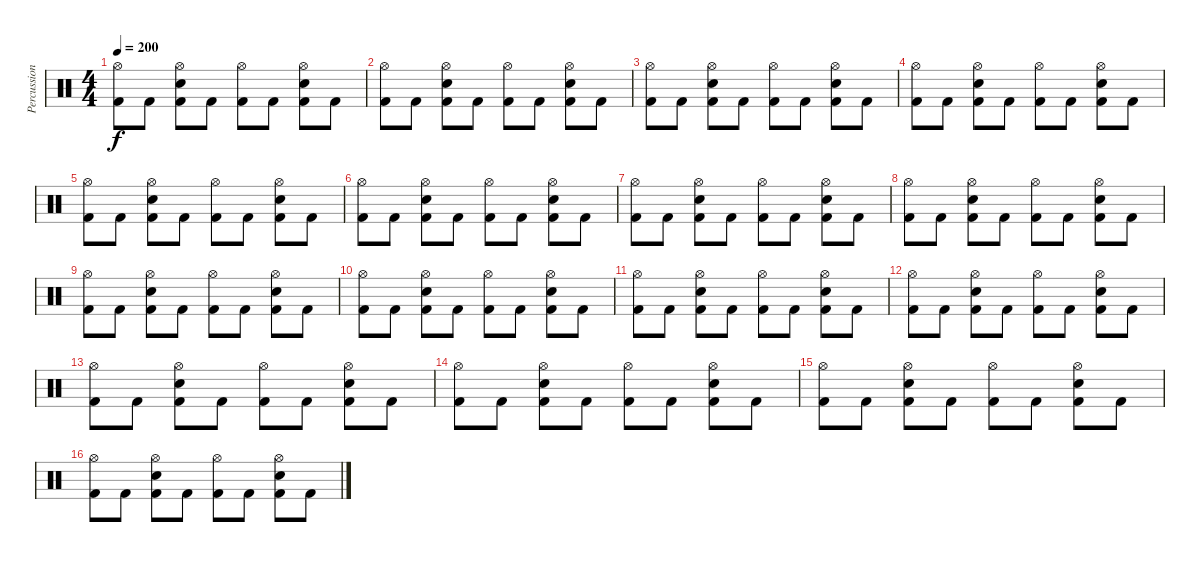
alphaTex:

\track ("Percussion" "Percussion") {instrument percussion}
\staff {score}
\articulation defaults
\ts (4 4)
\tempo 200
\clef neutral
\ks c
("Hi-Hat (open)" "Kick (hit) 2").8{dy f} "Kick (hit) 2".8 ("Hi-Hat (open)" "Electric Snare (hit)" "Kick (hit) 2").8 "Kick (hit) 2".8 ("Hi-Hat (open)" "Kick (hit) 2").8 "Kick (hit) 2".8 ("Hi-Hat (open)" "Electric Snare (hit)" "Kick (hit) 2").8 "Kick (hit) 2".8 |
("Hi-Hat (open)" "Kick (hit) 2").8 "Kick (hit) 2".8 ("Hi-Hat (open)" "Electric Snare (hit)" "Kick (hit) 2").8 "Kick (hit) 2".8 ("Hi-Hat (open)" "Kick (hit) 2").8 "Kick (hit) 2".8 ("Hi-Hat (open)" "Electric Snare (hit)" "Kick (hit) 2").8 "Kick (hit) 2".8 |
("Hi-Hat (open)" "Kick (hit) 2").8 "Kick (hit) 2".8 ("Hi-Hat (open)" "Electric Snare (hit)" "Kick (hit) 2").8 "Kick (hit) 2".8 ("Hi-Hat (open)" "Kick (hit) 2").8 "Kick (hit) 2".8 ("Hi-Hat (open)" "Electric Snare (hit)" "Kick (hit) 2").8 "Kick (hit) 2".8 |
("Hi-Hat (open)" "Kick (hit) 2").8 "Kick (hit) 2".8 ("Hi-Hat (open)" "Electric Snare (hit)" "Kick (hit) 2").8 "Kick (hit) 2".8 ("Hi-Hat (open)" "Kick (hit) 2").8 "Kick (hit) 2".8 ("Hi-Hat (open)" "Electric Snare (hit)" "Kick (hit) 2").8 "Kick (hit) 2".8 |
("Hi-Hat (open)" "Kick (hit) 2").8 "Kick (hit) 2".8 ("Hi-Hat (open)" "Electric Snare (hit)" "Kick (hit) 2").8 "Kick (hit) 2".8 ("Hi-Hat (open)" "Kick (hit) 2").8 "Kick (hit) 2".8 ("Hi-Hat (open)" "Electric Snare (hit)" "Kick (hit) 2").8 "Kick (hit) 2".8 |
("Hi-Hat (open)" "Kick (hit) 2").8 "Kick (hit) 2".8 ("Hi-Hat (open)" "Electric Snare (hit)" "Kick (hit) 2").8 "Kick (hit) 2".8 ("Hi-Hat (open)" "Kick (hit) 2").8 "Kick (hit) 2".8 ("Hi-Hat (open)" "Electric Snare (hit)" "Kick (hit) 2").8 "Kick (hit) 2".8 |
("Hi-Hat (open)" "Kick (hit) 2").8 "Kick (hit) 2".8 ("Hi-Hat (open)" "Electric Snare (hit)" "Kick (hit) 2").8 "Kick (hit) 2".8 ("Hi-Hat (open)" "Kick (hit) 2").8 "Kick (hit) 2".8 ("Hi-Hat (open)" "Electric Snare (hit)" "Kick (hit) 2").8 "Kick (hit) 2".8 |
("Hi-Hat (open)" "Kick (hit) 2").8 "Kick (hit) 2".8 ("Hi-Hat (open)" "Electric Snare (hit)" "Kick (hit) 2").8 "Kick (hit) 2".8 ("Hi-Hat (open)" "Kick (hit) 2").8 "Kick (hit) 2".8 ("Hi-Hat (open)" "Electric Snare (hit)" "Kick (hit) 2").8 "Kick (hit) 2".8 |
("Hi-Hat (open)" "Kick (hit) 2").8 "Kick (hit) 2".8 ("Hi-Hat (open)" "Electric Snare (hit)" "Kick (hit) 2").8 "Kick (hit) 2".8 ("Hi-Hat (open)" "Kick (hit) 2").8 "Kick (hit) 2".8 ("Hi-Hat (open)" "Electric Snare (hit)" "Kick (hit) 2").8 "Kick (hit) 2".8 |
("Hi-Hat (open)" "Kick (hit) 2").8 "Kick (hit) 2".8 ("Hi-Hat (open)" "Electric Snare (hit)" "Kick (hit) 2").8 "Kick (hit) 2".8 ("Hi-Hat (open)" "Kick (hit) 2").8 "Kick (hit) 2".8 ("Hi-Hat (open)" "Electric Snare (hit)" "Kick (hit) 2").8 "Kick (hit) 2".8 |
("Hi-Hat (open)" "Kick (hit) 2").8 "Kick (hit) 2".8 ("Hi-Hat (open)" "Electric Snare (hit)" "Kick (hit) 2").8 "Kick (hit) 2".8 ("Hi-Hat (open)" "Kick (hit) 2").8 "Kick (hit) 2".8 ("Hi-Hat (open)" "Electric Snare (hit)" "Kick (hit) 2").8 "Kick (hit) 2".8 |
("Hi-Hat (open)" "Kick (hit) 2").8 "Kick (hit) 2".8 ("Hi-Hat (open)" "Electric Snare (hit)" "Kick (hit) 2").8 "Kick (hit) 2".8 ("Hi-Hat (open)" "Kick (hit) 2").8 "Kick (hit) 2".8 ("Hi-Hat (open)" "Electric Snare (hit)" "Kick (hit) 2").8 "Kick (hit) 2".8 |
("Hi-Hat (open)" "Kick (hit) 2").8 "Kick (hit) 2".8 ("Hi-Hat (open)" "Electric Snare (hit)" "Kick (hit) 2").8 "Kick (hit) 2".8 ("Hi-Hat (open)" "Kick (hit) 2").8 "Kick (hit) 2".8 ("Hi-Hat (open)" "Electric Snare (hit)" "Kick (hit) 2").8 "Kick (hit) 2".8 |
("Hi-Hat (open)" "Kick (hit) 2").8 "Kick (hit) 2".8 ("Hi-Hat (open)" "Electric Snare (hit)" "Kick (hit) 2").8 "Kick (hit) 2".8 ("Hi-Hat (open)" "Kick (hit) 2").8 "Kick (hit) 2".8 ("Hi-Hat (open)" "Electric Snare (hit)" "Kick (hit) 2").8 "Kick (hit) 2".8 |
("Hi-Hat (open)" "Kick (hit) 2").8 "Kick (hit) 2".8 ("Hi-Hat (open)" "Electric Snare (hit)" "Kick (hit) 2").8 "Kick (hit) 2".8 ("Hi-Hat (open)" "Kick (hit) 2").8 "Kick (hit) 2".8 ("Hi-Hat (open)" "Electric Snare (hit)" "Kick (hit) 2").8 "Kick (hit) 2".8 |
("Hi-Hat (open)" "Kick (hit) 2").8 "Kick (hit) 2".8 ("Hi-Hat (open)" "Electric Snare (hit)" "Kick (hit) 2").8 "Kick (hit) 2".8 ("Hi-Hat (open)" "Kick (hit) 2").8 "Kick (hit) 2".8 ("Hi-Hat (open)" "Electric Snare (hit)" "Kick (hit) 2").8 "Kick (hit) 2".8
